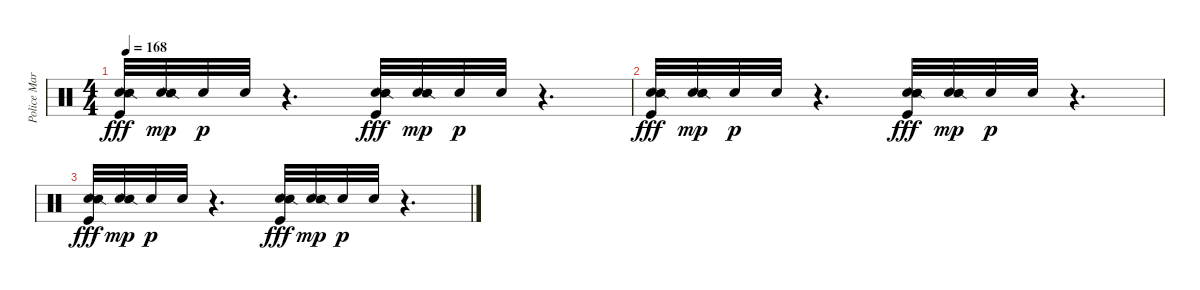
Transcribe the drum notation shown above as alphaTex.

\track ("Police March 1" "Police Mar") {instrument percussion}
\staff {score}
\articulation defaults
\ts (4 4)
\tempo 168
\clef neutral
\ks c
("Hand Clap (hit)" "Snare (side stick) 2" "Kick (hit)").32{dy fff} ("Hand Clap (hit)" "Snare (side stick) 2").32{dy mp} "Hand Clap (hit)".32{dy p} "Hand Clap (hit)".32 r.4{d} ("Hand Clap (hit)" "Snare (side stick) 2" "Kick (hit)").32{dy fff} ("Hand Clap (hit)" "Snare (side stick) 2").32{dy mp} "Hand Clap (hit)".32{dy p} "Hand Clap (hit)".32 r.4{d} |
("Hand Clap (hit)" "Snare (side stick) 2" "Kick (hit)").32{dy fff} ("Hand Clap (hit)" "Snare (side stick) 2").32{dy mp} "Hand Clap (hit)".32{dy p} "Hand Clap (hit)".32 r.4{d} ("Hand Clap (hit)" "Snare (side stick) 2" "Kick (hit)").32{dy fff} ("Hand Clap (hit)" "Snare (side stick) 2").32{dy mp} "Hand Clap (hit)".32{dy p} "Hand Clap (hit)".32 r.4{d} |
("Hand Clap (hit)" "Snare (side stick) 2" "Kick (hit)").32{dy fff} ("Hand Clap (hit)" "Snare (side stick) 2").32{dy mp} "Hand Clap (hit)".32{dy p} "Hand Clap (hit)".32 r.4{d} ("Hand Clap (hit)" "Snare (side stick) 2" "Kick (hit)").32{dy fff} ("Hand Clap (hit)" "Snare (side stick) 2").32{dy mp} "Hand Clap (hit)".32{dy p} "Hand Clap (hit)".32 r.4{d}
